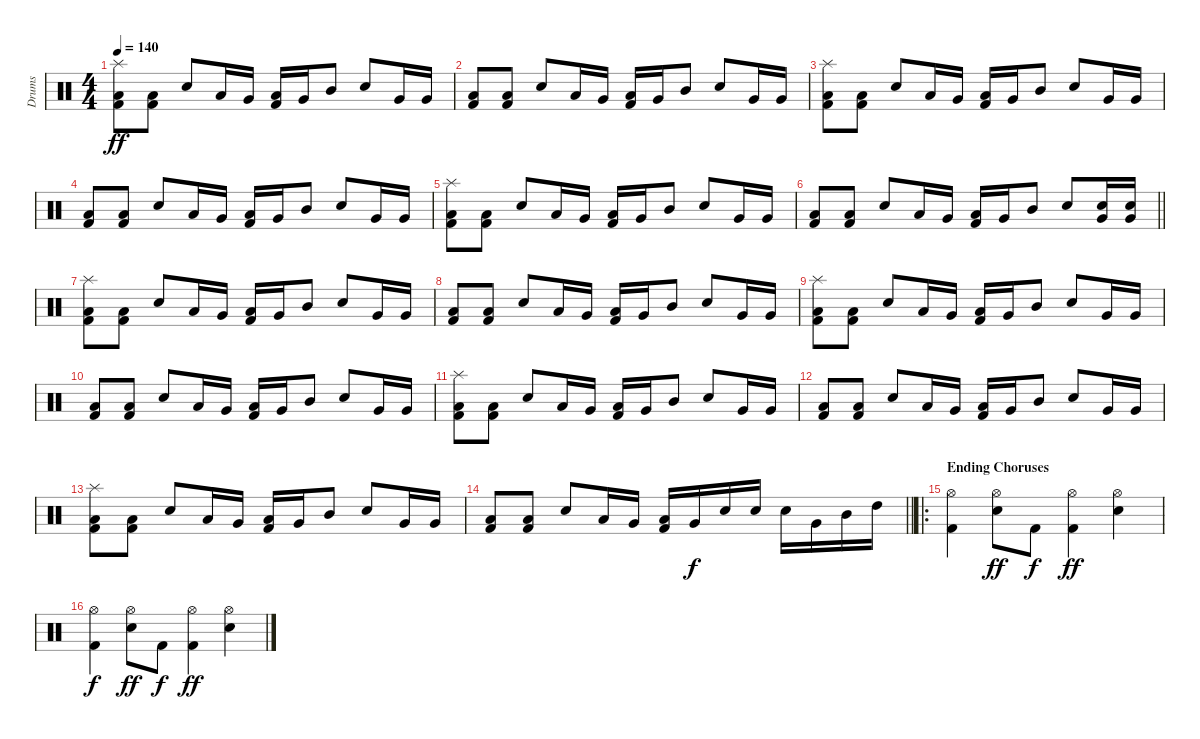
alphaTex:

\track ("Drums" "Drums") {instrument percussion}
\staff {score}
\articulation defaults
\ts (4 4)
\tempo 140
\clef neutral
\ks c
("Splash (hit)" "Low Floor Tom (hit)" "Kick (hit) 2").8{dy ff} ("Low Floor Tom (hit)" "Kick (hit) 2").8 "Snare (hit) 2".8 "Low Floor Tom (hit)".16 "Very Low Tom (hit)".16 ("Low Tom (hit)" "Kick (hit) 2").16 "Very Low Tom (hit)".16 "Mid Tom (hit)".8 "Snare (hit) 2".8 "Very Low Tom (hit)".16 "Very Low Tom (hit)".16 |
("Low Floor Tom (hit)" "Kick (hit) 2").8 ("Low Floor Tom (hit)" "Kick (hit) 2").8 "Snare (hit) 2".8 "Low Floor Tom (hit)".16 "Very Low Tom (hit)".16 ("Low Tom (hit)" "Kick (hit) 2").16 "Very Low Tom (hit)".16 "Mid Tom (hit)".8 "Snare (hit) 2".8 "Very Low Tom (hit)".16 "Very Low Tom (hit)".16 |
("Splash (hit)" "Low Floor Tom (hit)" "Kick (hit) 2").8 ("Low Floor Tom (hit)" "Kick (hit) 2").8 "Snare (hit) 2".8 "Low Floor Tom (hit)".16 "Very Low Tom (hit)".16 ("Low Tom (hit)" "Kick (hit) 2").16 "Very Low Tom (hit)".16 "Mid Tom (hit)".8 "Snare (hit) 2".8 "Very Low Tom (hit)".16 "Very Low Tom (hit)".16 |
("Low Floor Tom (hit)" "Kick (hit) 2").8 ("Low Floor Tom (hit)" "Kick (hit) 2").8 "Snare (hit) 2".8 "Low Floor Tom (hit)".16 "Very Low Tom (hit)".16 ("Low Tom (hit)" "Kick (hit) 2").16 "Very Low Tom (hit)".16 "Mid Tom (hit)".8 "Snare (hit) 2".8 "Very Low Tom (hit)".16 "Very Low Tom (hit)".16 |
("Splash (hit)" "Low Floor Tom (hit)" "Kick (hit) 2").8 ("Low Floor Tom (hit)" "Kick (hit) 2").8 "Snare (hit) 2".8 "Low Floor Tom (hit)".16 "Very Low Tom (hit)".16 ("Low Tom (hit)" "Kick (hit) 2").16 "Very Low Tom (hit)".16 "Mid Tom (hit)".8 "Snare (hit) 2".8 "Very Low Tom (hit)".16 "Very Low Tom (hit)".16 |
\barLineRight lightlight
("Low Floor Tom (hit)" "Kick (hit) 2").8 ("Low Floor Tom (hit)" "Kick (hit) 2").8 "Snare (hit) 2".8 "Low Floor Tom (hit)".16 "Very Low Tom (hit)".16 ("Low Tom (hit)" "Kick (hit) 2").16 "Very Low Tom (hit)".16 "Mid Tom (hit)".8 "Snare (hit) 2".8 ("Snare (hit) 2" "Very Low Tom (hit)").16 ("Snare (hit) 2" "Very Low Tom (hit)").16 |
\section ("" "")
("Splash (hit)" "Low Floor Tom (hit)" "Kick (hit) 2").8 ("Low Floor Tom (hit)" "Kick (hit) 2").8 "Snare (hit) 2".8 "Low Floor Tom (hit)".16 "Very Low Tom (hit)".16 ("Low Tom (hit)" "Kick (hit) 2").16 "Very Low Tom (hit)".16 "Mid Tom (hit)".8 "Snare (hit) 2".8 "Very Low Tom (hit)".16 "Very Low Tom (hit)".16 |
("Low Floor Tom (hit)" "Kick (hit) 2").8 ("Low Floor Tom (hit)" "Kick (hit) 2").8 "Snare (hit) 2".8 "Low Floor Tom (hit)".16 "Very Low Tom (hit)".16 ("Low Tom (hit)" "Kick (hit) 2").16 "Very Low Tom (hit)".16 "Mid Tom (hit)".8 "Snare (hit) 2".8 "Very Low Tom (hit)".16 "Very Low Tom (hit)".16 |
("Splash (hit)" "Low Floor Tom (hit)" "Kick (hit) 2").8 ("Low Floor Tom (hit)" "Kick (hit) 2").8 "Snare (hit) 2".8 "Low Floor Tom (hit)".16 "Very Low Tom (hit)".16 ("Low Tom (hit)" "Kick (hit) 2").16 "Very Low Tom (hit)".16 "Mid Tom (hit)".8 "Snare (hit) 2".8 "Very Low Tom (hit)".16 "Very Low Tom (hit)".16 |
("Low Floor Tom (hit)" "Kick (hit) 2").8 ("Low Floor Tom (hit)" "Kick (hit) 2").8 "Snare (hit) 2".8 "Low Floor Tom (hit)".16 "Very Low Tom (hit)".16 ("Low Tom (hit)" "Kick (hit) 2").16 "Very Low Tom (hit)".16 "Mid Tom (hit)".8 "Snare (hit) 2".8 "Very Low Tom (hit)".16 "Very Low Tom (hit)".16 |
("Splash (hit)" "Low Floor Tom (hit)" "Kick (hit) 2").8 ("Low Floor Tom (hit)" "Kick (hit) 2").8 "Snare (hit) 2".8 "Low Floor Tom (hit)".16 "Very Low Tom (hit)".16 ("Low Tom (hit)" "Kick (hit) 2").16 "Very Low Tom (hit)".16 "Mid Tom (hit)".8 "Snare (hit) 2".8 "Very Low Tom (hit)".16 "Very Low Tom (hit)".16 |
("Low Floor Tom (hit)" "Kick (hit) 2").8 ("Low Floor Tom (hit)" "Kick (hit) 2").8 "Snare (hit) 2".8 "Low Floor Tom (hit)".16 "Very Low Tom (hit)".16 ("Low Tom (hit)" "Kick (hit) 2").16 "Very Low Tom (hit)".16 "Mid Tom (hit)".8 "Snare (hit) 2".8 "Very Low Tom (hit)".16 "Very Low Tom (hit)".16 |
("Splash (hit)" "Low Floor Tom (hit)" "Kick (hit) 2").8 ("Low Floor Tom (hit)" "Kick (hit) 2").8 "Snare (hit) 2".8 "Low Floor Tom (hit)".16 "Very Low Tom (hit)".16 ("Low Tom (hit)" "Kick (hit) 2").16 "Very Low Tom (hit)".16 "Mid Tom (hit)".8 "Snare (hit) 2".8 "Very Low Tom (hit)".16 "Very Low Tom (hit)".16 |
\barLineRight lightlight
("Low Floor Tom (hit)" "Kick (hit) 2").8 ("Low Floor Tom (hit)" "Kick (hit) 2").8 "Snare (hit) 2".8 "Low Floor Tom (hit)".16 "Very Low Tom (hit)".16 ("Low Tom (hit)" "Kick (hit) 2").16 "Very Low Tom (hit)".16{dy f} "Snare (hit) 2".16 "Snare (hit) 2".16 "Snare (hit) 2".16 "Very Low Tom (hit)".16 "Mid Tom (hit)".16 "High Tom (hit)".16 |
\ro
\section ("" "Ending Choruses")
("Hi-Hat (open)" "Kick (hit) 2").4 ("Hi-Hat (open)" "Snare (hit) 2").8{dy ff} "Kick (hit) 2".8{dy f} ("Hi-Hat (open)" "Kick (hit) 2").4{dy ff} ("Hi-Hat (open)" "Snare (hit) 2").4 |
("Hi-Hat (open)" "Kick (hit) 2").4{dy f} ("Hi-Hat (open)" "Snare (hit) 2").8{dy ff} "Kick (hit) 2".8{dy f} ("Hi-Hat (open)" "Kick (hit) 2").4{dy ff} ("Hi-Hat (open)" "Snare (hit) 2").4
